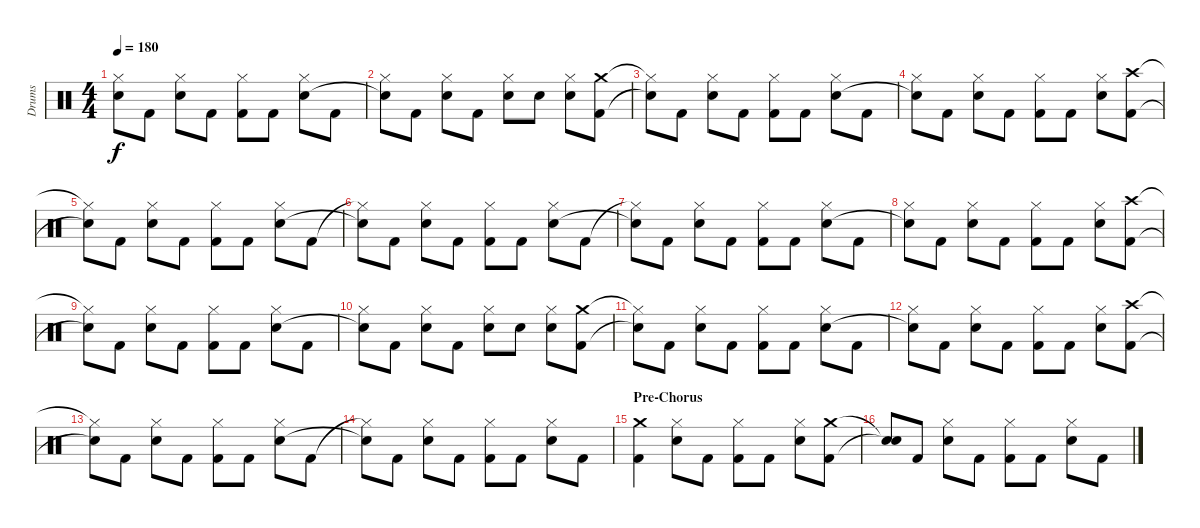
\track ("Drums" "Drums") {instrument percussion}
\staff {score}
\articulation defaults
\ts (4 4)
\tempo 180
\clef neutral
\ks c
("Hi-Hat (closed)"{t} "Snare (hit)"{t}).8{dy f} "Kick (hit) 2".8 ("Hi-Hat (closed)" "Electric Snare (hit)").8 "Kick (hit) 2".8 ("Hi-Hat (closed)" "Kick (hit) 2").8 "Kick (hit) 2".8 ("Hi-Hat (closed)" "Electric Snare (hit)").8 "Kick (hit) 2".8 |
("Hi-Hat (closed)" "Snare (hit)"{t}).8 "Kick (hit) 2".8 ("Hi-Hat (closed)" "Electric Snare (hit)").8 "Kick (hit) 2".8 ("Hi-Hat (closed)" "Electric Snare (hit)").8 "Electric Snare (hit)".8 ("Hi-Hat (closed)" "Electric Snare (hit)").8 ("Crash medium (hit)" "Kick (hit) 2").8 |
("Hi-Hat (closed)"{t} "Snare (hit)"{t}).8 "Kick (hit) 2".8 ("Hi-Hat (closed)" "Electric Snare (hit)").8 "Kick (hit) 2".8 ("Hi-Hat (closed)" "Kick (hit) 2").8 "Kick (hit) 2".8 ("Hi-Hat (closed)" "Electric Snare (hit)").8 "Kick (hit) 2".8 |
("Hi-Hat (closed)" "Snare (hit)"{t}).8 "Kick (hit) 2".8 ("Hi-Hat (closed)" "Electric Snare (hit)").8 "Kick (hit) 2".8 ("Hi-Hat (closed)" "Kick (hit) 2").8 "Kick (hit) 2".8 ("Hi-Hat (closed)" "Electric Snare (hit)").8 ("Crash high (hit)" "Kick (hit) 2").8 |
("Hi-Hat (closed)"{t} "Snare (hit)"{t}).8 "Kick (hit) 2".8 ("Hi-Hat (closed)" "Electric Snare (hit)").8 "Kick (hit) 2".8 ("Hi-Hat (closed)" "Kick (hit) 2").8 "Kick (hit) 2".8 ("Hi-Hat (closed)" "Electric Snare (hit)").8 "Kick (hit) 2".8 |
("Hi-Hat (closed)"{t} "Snare (hit)"{t}).8 "Kick (hit) 2".8 ("Hi-Hat (closed)" "Electric Snare (hit)").8 "Kick (hit) 2".8 ("Hi-Hat (closed)" "Kick (hit) 2").8 "Kick (hit) 2".8 ("Hi-Hat (closed)" "Electric Snare (hit)").8 "Kick (hit) 2".8 |
("Hi-Hat (closed)"{t} "Snare (hit)"{t}).8 "Kick (hit) 2".8 ("Hi-Hat (closed)" "Electric Snare (hit)").8 "Kick (hit) 2".8 ("Hi-Hat (closed)" "Kick (hit) 2").8 "Kick (hit) 2".8 ("Hi-Hat (closed)" "Electric Snare (hit)").8 "Kick (hit) 2".8 |
("Hi-Hat (closed)" "Snare (hit)"{t}).8 "Kick (hit) 2".8 ("Hi-Hat (closed)" "Electric Snare (hit)").8 "Kick (hit) 2".8 ("Hi-Hat (closed)" "Kick (hit) 2").8 "Kick (hit) 2".8 ("Hi-Hat (closed)" "Electric Snare (hit)").8 ("Crash high (hit)" "Kick (hit) 2").8 |
("Hi-Hat (closed)"{t} "Snare (hit)"{t}).8 "Kick (hit) 2".8 ("Hi-Hat (closed)" "Electric Snare (hit)").8 "Kick (hit) 2".8 ("Hi-Hat (closed)" "Kick (hit) 2").8 "Kick (hit) 2".8 ("Hi-Hat (closed)" "Electric Snare (hit)").8 "Kick (hit) 2".8 |
("Hi-Hat (closed)" "Snare (hit)"{t}).8 "Kick (hit) 2".8 ("Hi-Hat (closed)" "Electric Snare (hit)").8 "Kick (hit) 2".8 ("Hi-Hat (closed)" "Electric Snare (hit)").8 "Electric Snare (hit)".8 ("Hi-Hat (closed)" "Electric Snare (hit)").8 ("Crash medium (hit)" "Kick (hit) 2").8 |
("Hi-Hat (closed)"{t} "Snare (hit)"{t}).8 "Kick (hit) 2".8 ("Hi-Hat (closed)" "Electric Snare (hit)").8 "Kick (hit) 2".8 ("Hi-Hat (closed)" "Kick (hit) 2").8 "Kick (hit) 2".8 ("Hi-Hat (closed)" "Electric Snare (hit)").8 "Kick (hit) 2".8 |
("Hi-Hat (closed)" "Snare (hit)"{t}).8 "Kick (hit) 2".8 ("Hi-Hat (closed)" "Electric Snare (hit)").8 "Kick (hit) 2".8 ("Hi-Hat (closed)" "Kick (hit) 2").8 "Kick (hit) 2".8 ("Hi-Hat (closed)" "Electric Snare (hit)").8 ("Crash high (hit)" "Kick (hit) 2").8 |
("Hi-Hat (closed)"{t} "Snare (hit)"{t}).8 "Kick (hit) 2".8 ("Hi-Hat (closed)" "Electric Snare (hit)").8 "Kick (hit) 2".8 ("Hi-Hat (closed)" "Kick (hit) 2").8 "Kick (hit) 2".8 ("Hi-Hat (closed)" "Electric Snare (hit)").8 "Kick (hit) 2".8 |
("Hi-Hat (closed)"{t} "Snare (hit)"{t}).8 "Kick (hit) 2".8 ("Hi-Hat (closed)" "Electric Snare (hit)").8 "Kick (hit) 2".8 ("Hi-Hat (closed)" "Kick (hit) 2").8 "Kick (hit) 2".8 ("Hi-Hat (closed)" "Electric Snare (hit)").8 "Kick (hit) 2".8 |
\section ("" "Pre-Chorus")
("Crash medium (hit)" "Kick (hit) 2").4 ("Hi-Hat (closed)" "Electric Snare (hit)").8 "Kick (hit) 2".8 ("Hi-Hat (closed)" "Kick (hit) 2").8 "Kick (hit) 2".8 ("Hi-Hat (closed)" "Electric Snare (hit)").8 ("Crash medium (hit)" "Kick (hit) 2").8 |
("Snare (hit)"{t} "Snare (hit)"{t}).8 "Kick (hit) 2".8 ("Hi-Hat (closed)" "Electric Snare (hit)").8 "Kick (hit) 2".8 ("Hi-Hat (closed)" "Kick (hit) 2").8 "Kick (hit) 2".8 ("Hi-Hat (closed)" "Electric Snare (hit)").8 "Kick (hit) 2".8
